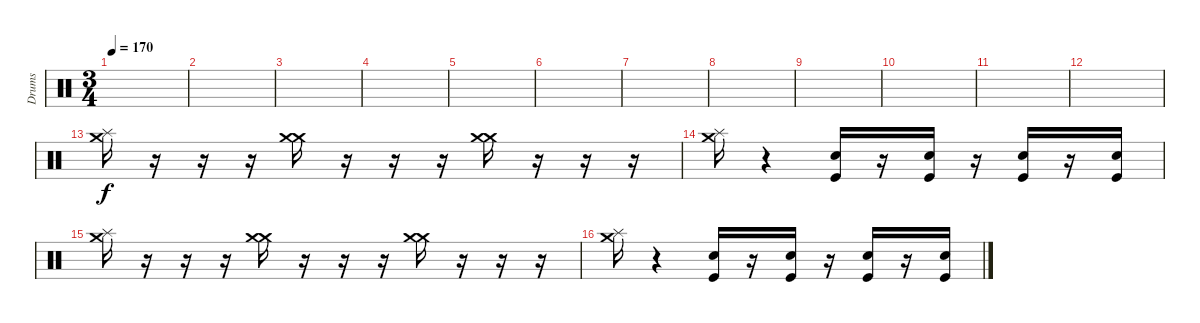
\track ("Drums" "Drums") {instrument percussion}
\staff {score}
\articulation defaults
\ts (3 4)
\tempo 170
\clef neutral
\ks c
|
|
|
|
|
|
|
|
|
|
|
|
("Crash medium (hit)" "Splash (hit)").16 r.16 r.16 r.16 ("Crash medium (hit)" "Crash medium (hit)").16 r.16 r.16 r.16 ("Crash medium (hit)" "Crash medium (hit)").16 r.16 r.16 r.16 |
("Crash medium (hit)" "Splash (hit)").16 r.4 ("Electric Snare (hit)" "Kick (hit)").16 r.16 ("Electric Snare (hit)" "Kick (hit)").16 r.16 ("Electric Snare (hit)" "Kick (hit)").16 r.16 ("Electric Snare (hit)" "Kick (hit)").16 |
("Crash medium (hit)" "Splash (hit)").16 r.16 r.16 r.16 ("Crash medium (hit)" "Crash medium (hit)").16 r.16 r.16 r.16 ("Crash medium (hit)" "Crash medium (hit)").16 r.16 r.16 r.16 |
("Crash medium (hit)" "Splash (hit)").16 r.4 ("Electric Snare (hit)" "Kick (hit)").16 r.16 ("Electric Snare (hit)" "Kick (hit)").16 r.16 ("Electric Snare (hit)" "Kick (hit)").16 r.16 ("Electric Snare (hit)" "Kick (hit)").16
